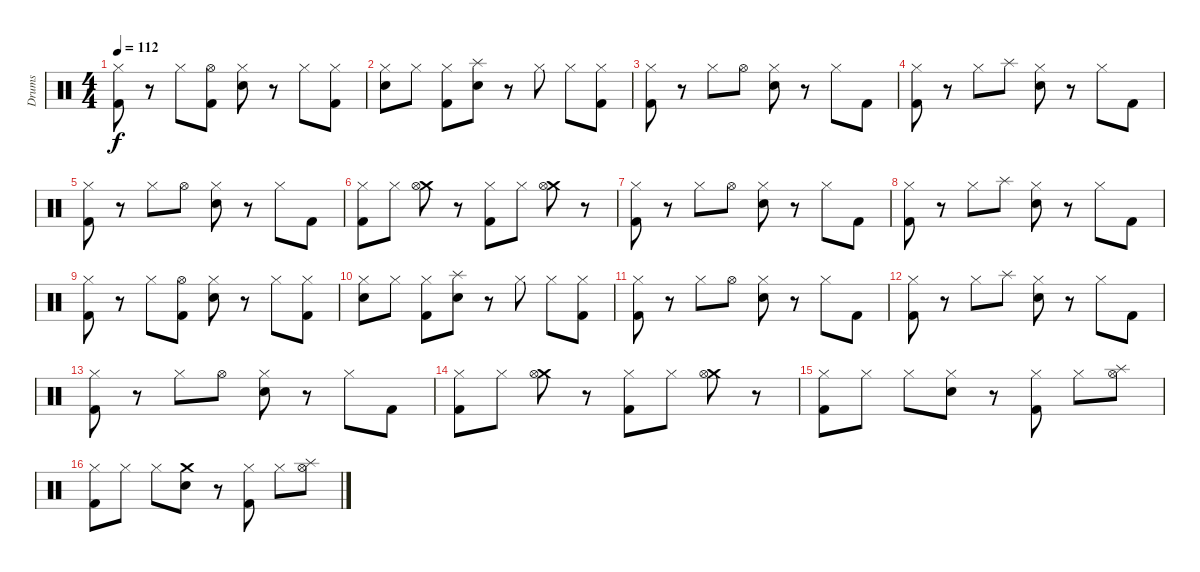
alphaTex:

\track ("Drums" "Drums") {instrument percussion}
\staff {score}
\articulation defaults
\ts (4 4)
\tempo 112
\clef neutral
\ks c
("Hi-Hat (closed)" "Kick (hit) 2").8{dy f} r.8 "Hi-Hat (closed)".8 ("Hi-Hat (open)" "Kick (hit) 2").8 ("Hi-Hat (closed)" "Snare (hit) 2").8 r.8 "Hi-Hat (closed)".8 ("Hi-Hat (closed)" "Kick (hit) 2").8 |
("Hi-Hat (closed)" "Snare (hit) 2").8 "Hi-Hat (closed)".8 ("Hi-Hat (closed)" "Kick (hit) 2").8 ("Splash (hit)" "Snare (hit) 2").8 r.8 "Hi-Hat (closed)".8 "Hi-Hat (closed)".8 ("Hi-Hat (closed)" "Kick (hit) 2").8 |
("Hi-Hat (closed)" "Kick (hit) 2").8 r.8 "Hi-Hat (closed)".8 "Hi-Hat (open)".8 ("Hi-Hat (closed)" "Snare (hit) 2").8 r.8 "Hi-Hat (closed)".8 "Kick (hit) 2".8 |
("Hi-Hat (closed)" "Kick (hit) 2").8 r.8 "Hi-Hat (closed)".8 "Splash (hit)".8 ("Hi-Hat (closed)" "Snare (hit) 2").8 r.8 "Hi-Hat (closed)".8 "Kick (hit) 2".8 |
("Hi-Hat (closed)" "Kick (hit) 2").8 r.8 "Hi-Hat (closed)".8 "Hi-Hat (open)".8 ("Hi-Hat (closed)" "Snare (hit) 2").8 r.8 "Hi-Hat (closed)".8 "Kick (hit) 2".8 |
("Hi-Hat (closed)" "Kick (hit) 2").8 "Hi-Hat (closed)".8 ("Crash medium (hit)" "Hi-Hat (open)").8 r.8 ("Hi-Hat (closed)" "Kick (hit) 2").8 "Hi-Hat (closed)".8 ("Crash medium (hit)" "Hi-Hat (open)").8 r.8 |
("Hi-Hat (closed)" "Kick (hit) 2").8 r.8 "Hi-Hat (closed)".8 "Hi-Hat (open)".8 ("Hi-Hat (closed)" "Snare (hit) 2").8 r.8 "Hi-Hat (closed)".8 "Kick (hit) 2".8 |
("Hi-Hat (closed)" "Kick (hit) 2").8 r.8 "Hi-Hat (closed)".8 "Splash (hit)".8 ("Hi-Hat (closed)" "Snare (hit) 2").8 r.8 "Hi-Hat (closed)".8 "Kick (hit) 2".8 |
("Hi-Hat (closed)" "Kick (hit) 2").8 r.8 "Hi-Hat (closed)".8 ("Hi-Hat (open)" "Kick (hit) 2").8 ("Hi-Hat (closed)" "Snare (hit) 2").8 r.8 "Hi-Hat (closed)".8 ("Hi-Hat (closed)" "Kick (hit) 2").8 |
("Hi-Hat (closed)" "Snare (hit) 2").8 "Hi-Hat (closed)".8 ("Hi-Hat (closed)" "Kick (hit) 2").8 ("Splash (hit)" "Snare (hit) 2").8 r.8 "Hi-Hat (closed)".8 "Hi-Hat (closed)".8 ("Hi-Hat (closed)" "Kick (hit) 2").8 |
("Hi-Hat (closed)" "Kick (hit) 2").8 r.8 "Hi-Hat (closed)".8 "Hi-Hat (open)".8 ("Hi-Hat (closed)" "Snare (hit) 2").8 r.8 "Hi-Hat (closed)".8 "Kick (hit) 2".8 |
("Hi-Hat (closed)" "Kick (hit) 2").8 r.8 "Hi-Hat (closed)".8 "Splash (hit)".8 ("Hi-Hat (closed)" "Snare (hit) 2").8 r.8 "Hi-Hat (closed)".8 "Kick (hit) 2".8 |
("Hi-Hat (closed)" "Kick (hit) 2").8 r.8 "Hi-Hat (closed)".8 "Hi-Hat (open)".8 ("Hi-Hat (closed)" "Snare (hit) 2").8 r.8 "Hi-Hat (closed)".8 "Kick (hit) 2".8 |
("Hi-Hat (closed)" "Kick (hit) 2").8 "Hi-Hat (closed)".8 ("Crash medium (hit)" "Hi-Hat (open)").8 r.8 ("Hi-Hat (closed)" "Kick (hit) 2").8 "Hi-Hat (closed)".8 ("Crash medium (hit)" "Hi-Hat (open)").8 r.8 |
("Hi-Hat (closed)" "Kick (hit) 2").8 "Hi-Hat (closed)".8 "Hi-Hat (closed)".8 ("Hi-Hat (closed)" "Snare (hit) 2").8 r.8 ("Hi-Hat (closed)" "Kick (hit) 2").8 "Hi-Hat (closed)".8 ("Splash (hit)" "Hi-Hat (open)").8 |
("Hi-Hat (closed)" "Kick (hit) 2").8 "Hi-Hat (closed)".8 "Hi-Hat (closed)".8 ("Crash medium (hit)" "Snare (hit) 2").8 r.8 ("Hi-Hat (closed)" "Kick (hit) 2").8 "Hi-Hat (closed)".8 ("Splash (hit)" "Hi-Hat (open)").8
